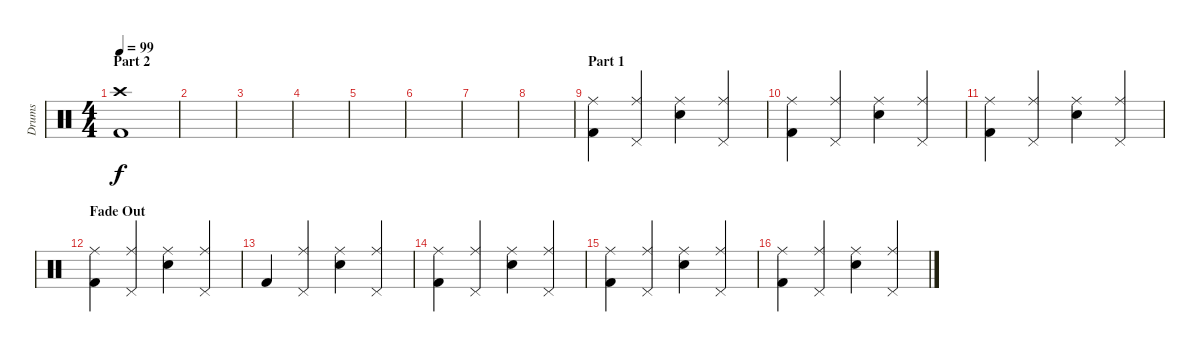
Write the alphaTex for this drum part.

\track ("Drums" "Drums") {instrument percussion}
\staff {score}
\articulation defaults
\ts (4 4)
\section ("" "Part 2")
\tempo 99
\clef neutral
\ks c
("Crash high (hit)" "Kick (hit) 2").1{dy f} |
|
|
|
|
|
|
|
\section ("" "Part 1")
("Ride (middle)" "Kick (hit) 2").4 ("Ride (middle)" "Pedal Hi-Hat (hit)").4 ("Ride (middle)" "Snare (hit) 2").4 ("Ride (middle)" "Pedal Hi-Hat (hit)").4 |
("Ride (middle)" "Kick (hit) 2").4 ("Ride (middle)" "Pedal Hi-Hat (hit)").4 ("Ride (middle)" "Snare (hit) 2").4 ("Ride (middle)" "Pedal Hi-Hat (hit)").4 |
("Ride (middle)" "Kick (hit) 2").4 ("Ride (middle)" "Pedal Hi-Hat (hit)").4 ("Ride (middle)" "Snare (hit) 2").4 ("Ride (middle)" "Pedal Hi-Hat (hit)").4 |
\section ("" "Fade Out")
("Ride (middle)" "Kick (hit) 2").4 ("Ride (middle)" "Pedal Hi-Hat (hit)").4 ("Ride (middle)" "Snare (hit) 2").4 ("Ride (middle)" "Pedal Hi-Hat (hit)").4 |
"Kick (hit) 2".4 ("Ride (middle)" "Pedal Hi-Hat (hit)").4 ("Ride (middle)" "Snare (hit) 2").4 ("Ride (middle)" "Pedal Hi-Hat (hit)").4 |
("Ride (middle)" "Kick (hit) 2").4 ("Ride (middle)" "Pedal Hi-Hat (hit)").4 ("Ride (middle)" "Snare (hit) 2").4 ("Ride (middle)" "Pedal Hi-Hat (hit)").4 |
("Ride (middle)" "Kick (hit) 2").4 ("Ride (middle)" "Pedal Hi-Hat (hit)").4 ("Ride (middle)" "Snare (hit) 2").4 ("Ride (middle)" "Pedal Hi-Hat (hit)").4 |
("Ride (middle)" "Kick (hit) 2").4 ("Ride (middle)" "Pedal Hi-Hat (hit)").4 ("Ride (middle)" "Snare (hit) 2").4 ("Ride (middle)" "Pedal Hi-Hat (hit)").4
